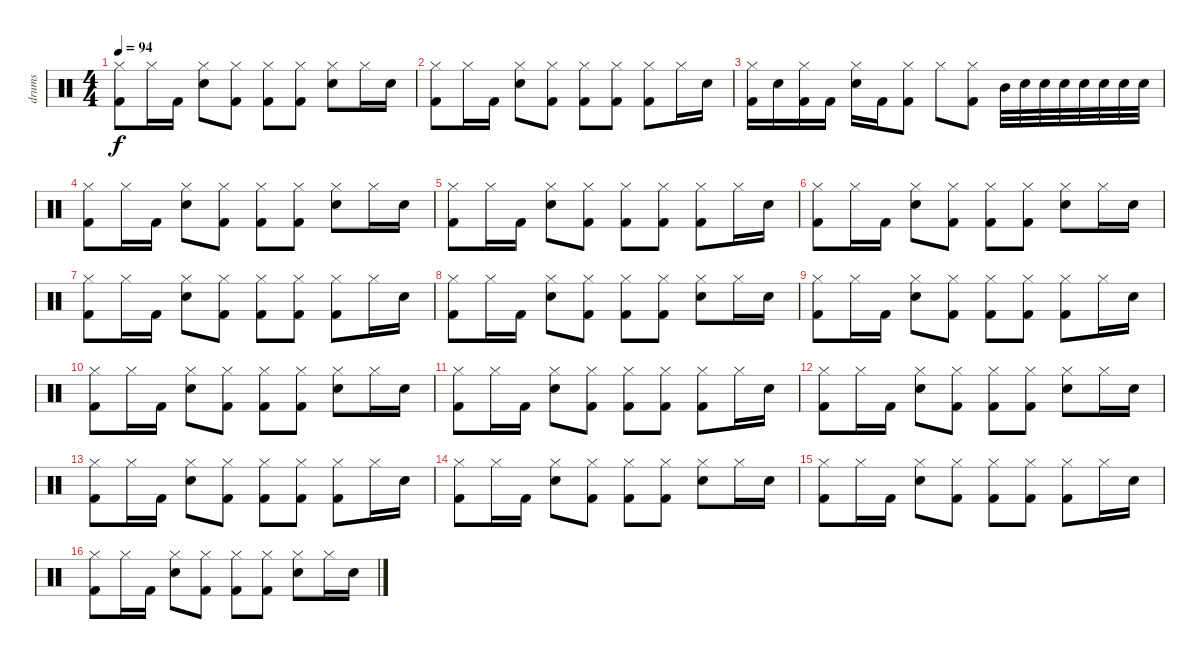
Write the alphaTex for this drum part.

\track ("drums" "drums") {instrument percussion}
\staff {score}
\articulation defaults
\ts (4 4)
\tempo 94
\clef neutral
\ks c
("Kick (hit) 2" "Hi-Hat (closed)").8{dy f} "Hi-Hat (closed)".16 "Kick (hit) 2".16 ("Hi-Hat (closed)" "Snare (hit) 2").8 ("Kick (hit) 2" "Hi-Hat (closed)").8 ("Kick (hit) 2" "Hi-Hat (closed)").8 ("Hi-Hat (closed)" "Kick (hit) 2").8 ("Hi-Hat (closed)" "Snare (hit) 2").8 "Hi-Hat (closed)".16 "Snare (hit) 2".16 |
("Kick (hit) 2" "Hi-Hat (closed)").8 "Hi-Hat (closed)".16 "Kick (hit) 2".16 ("Hi-Hat (closed)" "Snare (hit) 2").8 ("Kick (hit) 2" "Hi-Hat (closed)").8 ("Kick (hit) 2" "Hi-Hat (closed)").8 ("Hi-Hat (closed)" "Kick (hit) 2").8 ("Hi-Hat (closed)" "Kick (hit) 2").8 "Hi-Hat (closed)".16 "Snare (hit) 2".16 |
("Hi-Hat (closed)" "Kick (hit) 2").16 "Snare (hit) 2".16 ("Hi-Hat (closed)" "Kick (hit) 2").16 "Kick (hit) 2".16 ("Hi-Hat (closed)" "Snare (hit) 2").16 "Kick (hit) 2".16 ("Kick (hit) 2" "Hi-Hat (closed)").8 "Hi-Hat (closed)".8 ("Hi-Hat (closed)" "Kick (hit) 2").8 "Mid Tom (hit)".32 "Snare (hit) 2".32 "Snare (hit) 2".32 "Snare (hit) 2".32 "Snare (hit) 2".32 "Snare (hit) 2".32 "Snare (hit) 2".32 "Snare (hit) 2".32 |
("Kick (hit) 2" "Hi-Hat (closed)").8 "Hi-Hat (closed)".16 "Kick (hit) 2".16 ("Hi-Hat (closed)" "Snare (hit) 2").8 ("Kick (hit) 2" "Hi-Hat (closed)").8 ("Kick (hit) 2" "Hi-Hat (closed)").8 ("Hi-Hat (closed)" "Kick (hit) 2").8 ("Hi-Hat (closed)" "Snare (hit) 2").8 "Hi-Hat (closed)".16 "Snare (hit) 2".16 |
("Kick (hit) 2" "Hi-Hat (closed)").8 "Hi-Hat (closed)".16 "Kick (hit) 2".16 ("Hi-Hat (closed)" "Snare (hit) 2").8 ("Kick (hit) 2" "Hi-Hat (closed)").8 ("Kick (hit) 2" "Hi-Hat (closed)").8 ("Hi-Hat (closed)" "Kick (hit) 2").8 ("Hi-Hat (closed)" "Kick (hit) 2").8 "Hi-Hat (closed)".16 "Snare (hit) 2".16 |
("Kick (hit) 2" "Hi-Hat (closed)").8 "Hi-Hat (closed)".16 "Kick (hit) 2".16 ("Hi-Hat (closed)" "Snare (hit) 2").8 ("Kick (hit) 2" "Hi-Hat (closed)").8 ("Kick (hit) 2" "Hi-Hat (closed)").8 ("Hi-Hat (closed)" "Kick (hit) 2").8 ("Hi-Hat (closed)" "Snare (hit) 2").8 "Hi-Hat (closed)".16 "Snare (hit) 2".16 |
("Kick (hit) 2" "Hi-Hat (closed)").8 "Hi-Hat (closed)".16 "Kick (hit) 2".16 ("Hi-Hat (closed)" "Snare (hit) 2").8 ("Kick (hit) 2" "Hi-Hat (closed)").8 ("Kick (hit) 2" "Hi-Hat (closed)").8 ("Hi-Hat (closed)" "Kick (hit) 2").8 ("Hi-Hat (closed)" "Kick (hit) 2").8 "Hi-Hat (closed)".16 "Snare (hit) 2".16 |
("Kick (hit) 2" "Hi-Hat (closed)").8 "Hi-Hat (closed)".16 "Kick (hit) 2".16 ("Hi-Hat (closed)" "Snare (hit) 2").8 ("Kick (hit) 2" "Hi-Hat (closed)").8 ("Kick (hit) 2" "Hi-Hat (closed)").8 ("Hi-Hat (closed)" "Kick (hit) 2").8 ("Hi-Hat (closed)" "Snare (hit) 2").8 "Hi-Hat (closed)".16 "Snare (hit) 2".16 |
("Kick (hit) 2" "Hi-Hat (closed)").8 "Hi-Hat (closed)".16 "Kick (hit) 2".16 ("Hi-Hat (closed)" "Snare (hit) 2").8 ("Kick (hit) 2" "Hi-Hat (closed)").8 ("Kick (hit) 2" "Hi-Hat (closed)").8 ("Hi-Hat (closed)" "Kick (hit) 2").8 ("Hi-Hat (closed)" "Kick (hit) 2").8 "Hi-Hat (closed)".16 "Snare (hit) 2".16 |
("Kick (hit) 2" "Hi-Hat (closed)").8 "Hi-Hat (closed)".16 "Kick (hit) 2".16 ("Hi-Hat (closed)" "Snare (hit) 2").8 ("Kick (hit) 2" "Hi-Hat (closed)").8 ("Kick (hit) 2" "Hi-Hat (closed)").8 ("Hi-Hat (closed)" "Kick (hit) 2").8 ("Hi-Hat (closed)" "Snare (hit) 2").8 "Hi-Hat (closed)".16 "Snare (hit) 2".16 |
("Kick (hit) 2" "Hi-Hat (closed)").8 "Hi-Hat (closed)".16 "Kick (hit) 2".16 ("Hi-Hat (closed)" "Snare (hit) 2").8 ("Kick (hit) 2" "Hi-Hat (closed)").8 ("Kick (hit) 2" "Hi-Hat (closed)").8 ("Hi-Hat (closed)" "Kick (hit) 2").8 ("Hi-Hat (closed)" "Kick (hit) 2").8 "Hi-Hat (closed)".16 "Snare (hit) 2".16 |
("Kick (hit) 2" "Hi-Hat (closed)").8 "Hi-Hat (closed)".16 "Kick (hit) 2".16 ("Hi-Hat (closed)" "Snare (hit) 2").8 ("Kick (hit) 2" "Hi-Hat (closed)").8 ("Kick (hit) 2" "Hi-Hat (closed)").8 ("Hi-Hat (closed)" "Kick (hit) 2").8 ("Hi-Hat (closed)" "Snare (hit) 2").8 "Hi-Hat (closed)".16 "Snare (hit) 2".16 |
("Kick (hit) 2" "Hi-Hat (closed)").8 "Hi-Hat (closed)".16 "Kick (hit) 2".16 ("Hi-Hat (closed)" "Snare (hit) 2").8 ("Kick (hit) 2" "Hi-Hat (closed)").8 ("Kick (hit) 2" "Hi-Hat (closed)").8 ("Hi-Hat (closed)" "Kick (hit) 2").8 ("Hi-Hat (closed)" "Kick (hit) 2").8 "Hi-Hat (closed)".16 "Snare (hit) 2".16 |
("Kick (hit) 2" "Hi-Hat (closed)").8 "Hi-Hat (closed)".16 "Kick (hit) 2".16 ("Hi-Hat (closed)" "Snare (hit) 2").8 ("Kick (hit) 2" "Hi-Hat (closed)").8 ("Kick (hit) 2" "Hi-Hat (closed)").8 ("Hi-Hat (closed)" "Kick (hit) 2").8 ("Hi-Hat (closed)" "Snare (hit) 2").8 "Hi-Hat (closed)".16 "Snare (hit) 2".16 |
("Kick (hit) 2" "Hi-Hat (closed)").8 "Hi-Hat (closed)".16 "Kick (hit) 2".16 ("Hi-Hat (closed)" "Snare (hit) 2").8 ("Kick (hit) 2" "Hi-Hat (closed)").8 ("Kick (hit) 2" "Hi-Hat (closed)").8 ("Hi-Hat (closed)" "Kick (hit) 2").8 ("Hi-Hat (closed)" "Kick (hit) 2").8 "Hi-Hat (closed)".16 "Snare (hit) 2".16 |
("Kick (hit) 2" "Hi-Hat (closed)").8 "Hi-Hat (closed)".16 "Kick (hit) 2".16 ("Hi-Hat (closed)" "Snare (hit) 2").8 ("Kick (hit) 2" "Hi-Hat (closed)").8 ("Kick (hit) 2" "Hi-Hat (closed)").8 ("Hi-Hat (closed)" "Kick (hit) 2").8 ("Hi-Hat (closed)" "Snare (hit) 2").8 "Hi-Hat (closed)".16 "Snare (hit) 2".16
